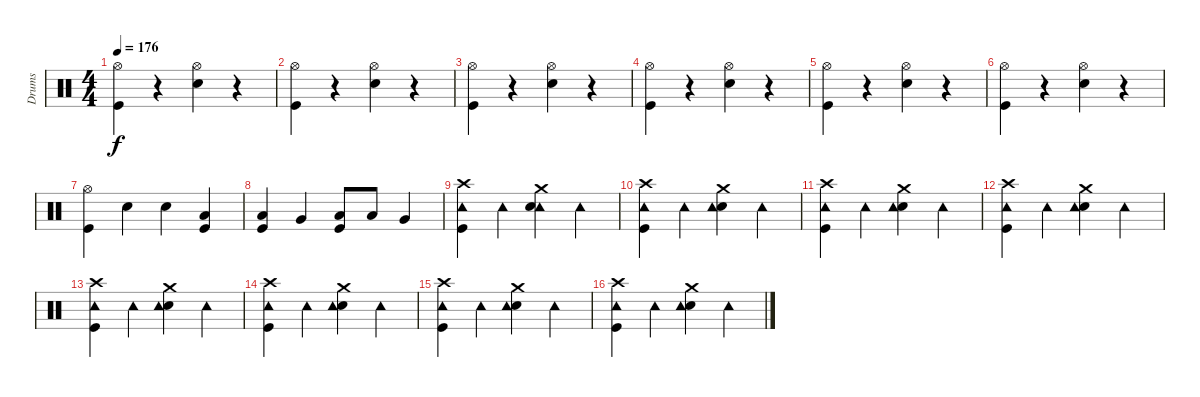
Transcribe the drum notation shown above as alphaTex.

\track ("Drums" "Drums") {instrument percussion}
\staff {score}
\articulation defaults
\ts (4 4)
\tempo 176
\clef neutral
\ks c
("Hi-Hat (open)" "Kick (hit)").4{dy f} r.4 ("Hi-Hat (open)" "Snare (hit) 2").4 r.4 |
("Hi-Hat (open)" "Kick (hit)").4 r.4 ("Hi-Hat (open)" "Electric Snare (hit)").4 r.4 |
("Hi-Hat (open)" "Kick (hit)").4 r.4 ("Hi-Hat (open)" "Snare (hit) 2").4 r.4 |
("Hi-Hat (open)" "Kick (hit)").4 r.4 ("Hi-Hat (open)" "Electric Snare (hit)").4 r.4 |
("Hi-Hat (open)" "Kick (hit)").4 r.4 ("Hi-Hat (open)" "Electric Snare (hit)").4 r.4 |
("Hi-Hat (open)" "Kick (hit)").4 r.4 ("Hi-Hat (open)" "Electric Snare (hit)").4 r.4 |
("Hi-Hat (open)" "Kick (hit)").4 "Snare (hit) 2".4 "Snare (hit) 2".4 ("Kick (hit)" "Low Tom (hit)").4 |
("Kick (hit)" "Low Tom (hit)").4 "Very Low Tom (hit)".4 ("Kick (hit)" "Low Floor Tom (hit)").8 "Low Floor Tom (hit)".8 "Very Low Tom (hit)".4 |
("Tambourine (hit)" "Crash high (hit)" "Kick (hit)").4 "Tambourine (hit)".4 ("Tambourine (hit)" "Crash medium (hit)" "Electric Snare (hit)").4 "Tambourine (hit)".4 |
("Crash high (hit)" "Kick (hit)" "Tambourine (hit)").4 "Tambourine (hit)".4 ("Crash medium (hit)" "Electric Snare (hit)" "Tambourine (hit)").4 "Tambourine (hit)".4 |
("Crash high (hit)" "Kick (hit)" "Tambourine (hit)").4 "Tambourine (hit)".4 ("Crash medium (hit)" "Electric Snare (hit)" "Tambourine (hit)").4 "Tambourine (hit)".4 |
("Crash high (hit)" "Kick (hit)" "Tambourine (hit)").4 "Tambourine (hit)".4 ("Crash medium (hit)" "Electric Snare (hit)" "Tambourine (hit)").4 "Tambourine (hit)".4 |
("Crash high (hit)" "Kick (hit)" "Tambourine (hit)").4 "Tambourine (hit)".4 ("Crash medium (hit)" "Electric Snare (hit)" "Tambourine (hit)").4 "Tambourine (hit)".4 |
("Crash high (hit)" "Kick (hit)" "Tambourine (hit)").4 "Tambourine (hit)".4 ("Crash medium (hit)" "Electric Snare (hit)" "Tambourine (hit)").4 "Tambourine (hit)".4 |
("Crash high (hit)" "Kick (hit)" "Tambourine (hit)").4 "Tambourine (hit)".4 ("Crash medium (hit)" "Electric Snare (hit)" "Tambourine (hit)").4 "Tambourine (hit)".4 |
("Crash high (hit)" "Kick (hit)" "Tambourine (hit)").4 "Tambourine (hit)".4 ("Crash medium (hit)" "Electric Snare (hit)" "Tambourine (hit)").4 "Tambourine (hit)".4
